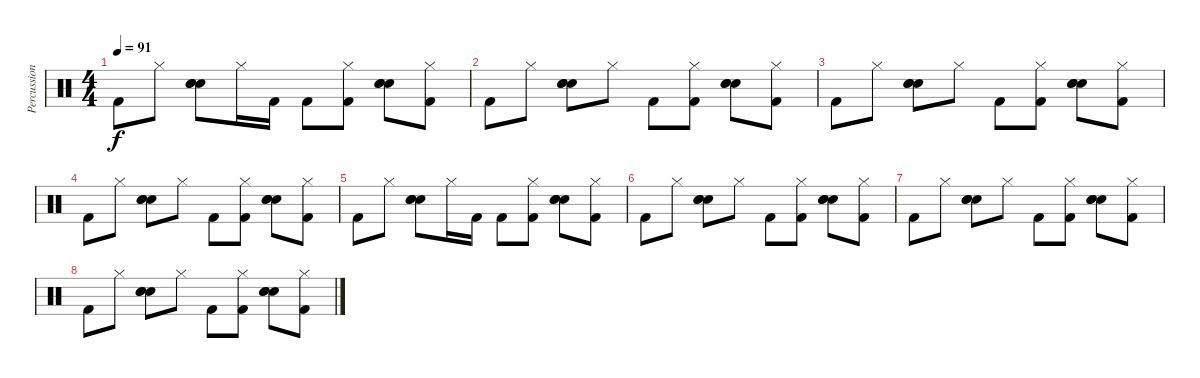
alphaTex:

\track ("Percussion" "Percussion") {instrument percussion}
\staff {score}
\articulation defaults
\ts (4 4)
\tempo 91
\clef neutral
\ks c "Kick (hit) 2".8{dy f} "Hi-Hat (closed)".8
("Hand Clap (hit)" "Electric Snare (hit)" "Snare (hit) 2").8 "Hi-Hat (closed)".16 "Kick (hit) 2".16 "Kick (hit) 2".8 ("Hi-Hat (closed)" "Kick (hit) 2").8 ("Hand Clap (hit)" "Electric Snare (hit)" "Snare (hit) 2").8 ("Hi-Hat (closed)" "Kick (hit) 2").8 |
"Kick (hit) 2".8 "Hi-Hat (closed)".8 ("Hand Clap (hit)" "Electric Snare (hit)" "Snare (hit) 2").8 "Hi-Hat (closed)".8 "Kick (hit) 2".8 ("Hi-Hat (closed)" "Kick (hit) 2").8 ("Hand Clap (hit)" "Electric Snare (hit)" "Snare (hit) 2").8 ("Hi-Hat (closed)" "Kick (hit) 2").8 |
"Kick (hit) 2".8 "Hi-Hat (closed)".8 ("Hand Clap (hit)" "Electric Snare (hit)" "Snare (hit) 2").8 "Hi-Hat (closed)".8 "Kick (hit) 2".8 ("Hi-Hat (closed)" "Kick (hit) 2").8 ("Hand Clap (hit)" "Electric Snare (hit)" "Snare (hit) 2").8 ("Hi-Hat (closed)" "Kick (hit) 2").8 |
"Kick (hit) 2".8 "Hi-Hat (closed)".8 ("Hand Clap (hit)" "Electric Snare (hit)" "Snare (hit) 2").8 "Hi-Hat (closed)".8 "Kick (hit) 2".8 ("Hi-Hat (closed)" "Kick (hit) 2").8 ("Hand Clap (hit)" "Electric Snare (hit)" "Snare (hit) 2").8 ("Hi-Hat (closed)" "Kick (hit) 2").8 |
"Kick (hit) 2".8 "Hi-Hat (closed)".8 ("Hand Clap (hit)" "Electric Snare (hit)" "Snare (hit) 2").8 "Hi-Hat (closed)".16 "Kick (hit) 2".16 "Kick (hit) 2".8 ("Hi-Hat (closed)" "Kick (hit) 2").8 ("Hand Clap (hit)" "Electric Snare (hit)" "Snare (hit) 2").8 ("Hi-Hat (closed)" "Kick (hit) 2").8 |
"Kick (hit) 2".8 "Hi-Hat (closed)".8 ("Hand Clap (hit)" "Electric Snare (hit)" "Snare (hit) 2").8 "Hi-Hat (closed)".8 "Kick (hit) 2".8 ("Hi-Hat (closed)" "Kick (hit) 2").8 ("Hand Clap (hit)" "Electric Snare (hit)" "Snare (hit) 2").8 ("Hi-Hat (closed)" "Kick (hit) 2").8 |
"Kick (hit) 2".8 "Hi-Hat (closed)".8 ("Hand Clap (hit)" "Electric Snare (hit)" "Snare (hit) 2").8 "Hi-Hat (closed)".8 "Kick (hit) 2".8 ("Hi-Hat (closed)" "Kick (hit) 2").8 ("Hand Clap (hit)" "Electric Snare (hit)" "Snare (hit) 2").8 ("Hi-Hat (closed)" "Kick (hit) 2").8 |
"Kick (hit) 2".8 "Hi-Hat (closed)".8 ("Hand Clap (hit)" "Electric Snare (hit)" "Snare (hit) 2").8 "Hi-Hat (closed)".8 "Kick (hit) 2".8 ("Hi-Hat (closed)" "Kick (hit) 2").8 ("Hand Clap (hit)" "Electric Snare (hit)" "Snare (hit) 2").8 ("Hi-Hat (closed)" "Kick (hit) 2").8
